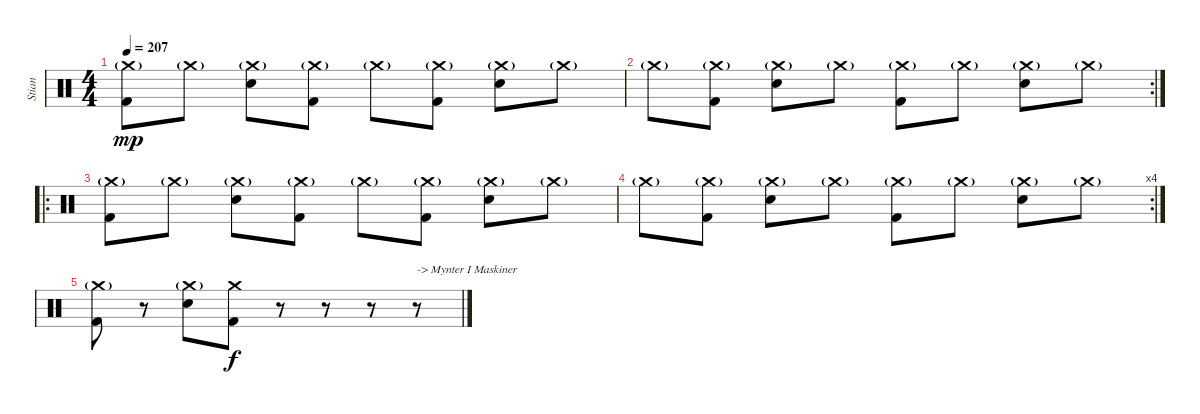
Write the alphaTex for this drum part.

\track ("Stian" "Stian") {instrument percussion}
\staff {score}
\articulation defaults
\ts (4 4)
\tempo 207
\clef neutral
\ks c
("Crash medium (hit)"{g} "Kick (hit) 2").8{dy mp} "Crash medium (hit)"{g}.8 ("Crash medium (hit)"{g} "Electric Snare (hit)").8 ("Crash medium (hit)"{g} "Kick (hit) 2").8 "Crash medium (hit)"{g}.8 ("Crash medium (hit)"{g} "Kick (hit) 2").8 ("Crash medium (hit)"{g} "Electric Snare (hit)").8 "Crash medium (hit)"{g}.8 |
\rc 2 "Crash medium (hit)"{g}.8
("Crash medium (hit)"{g} "Kick (hit) 2").8 ("Crash medium (hit)"{g} "Electric Snare (hit)").8 "Crash medium (hit)"{g}.8 ("Crash medium (hit)"{g} "Kick (hit) 2").8 "Crash medium (hit)"{g}.8 ("Crash medium (hit)"{g} "Electric Snare (hit)").8 "Crash medium (hit)"{g}.8 |
\ro
("Crash medium (hit)"{g} "Kick (hit) 2").8 "Crash medium (hit)"{g}.8 ("Crash medium (hit)"{g} "Electric Snare (hit)").8 ("Crash medium (hit)"{g} "Kick (hit) 2").8 "Crash medium (hit)"{g}.8 ("Crash medium (hit)"{g} "Kick (hit) 2").8 ("Crash medium (hit)"{g} "Electric Snare (hit)").8 "Crash medium (hit)"{g}.8 |
\rc 4 "Crash medium (hit)"{g}.8
("Crash medium (hit)"{g} "Kick (hit) 2").8 ("Crash medium (hit)"{g} "Electric Snare (hit)").8 "Crash medium (hit)"{g}.8 ("Crash medium (hit)"{g} "Kick (hit) 2").8 "Crash medium (hit)"{g}.8 ("Crash medium (hit)"{g} "Electric Snare (hit)").8 "Crash medium (hit)"{g}.8 |
("Crash medium (hit)"{g} "Kick (hit) 2").8 r.8 ("Crash medium (hit)"{g} "Electric Snare (hit)").8 ("Crash medium (hit)" "Kick (hit) 2").8{dy f} r.8 r.8 r.8 r.8{txt "-> Mynter I Maskiner"}
